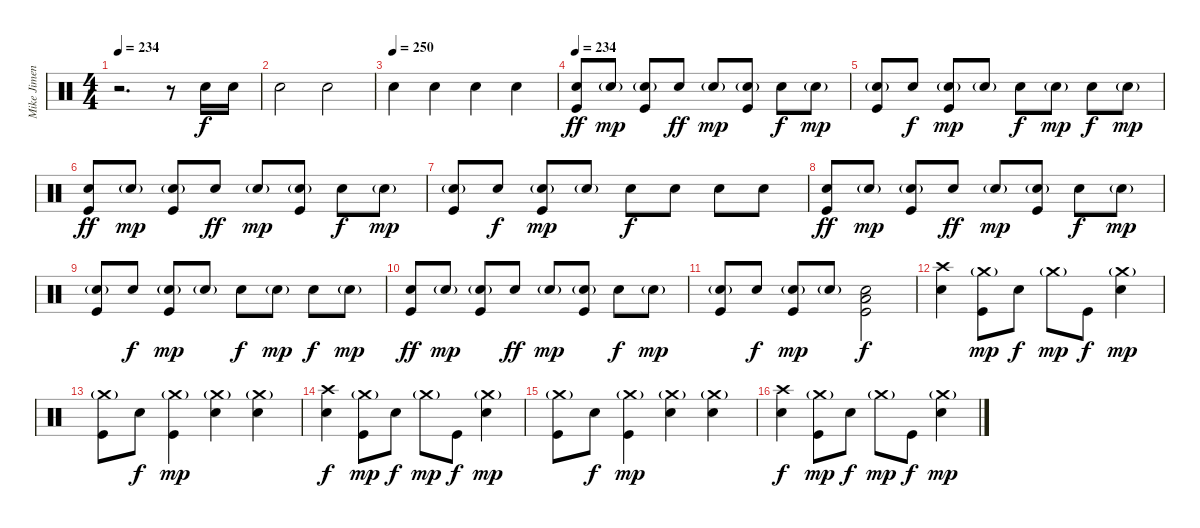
\track ("Mike Jimenez" "Mike Jimen") {instrument percussion}
\staff {score}
\articulation defaults
\ts (4 4)
\tempo 234
\clef neutral
\ks c
r.2{d dy f volume 3} r.8 "Electric Snare (hit)".16 "Electric Snare (hit)".16 |
"Electric Snare (hit)".2 "Electric Snare (hit)".2 |
\tempo (250)
"Electric Snare (hit)".4 "Electric Snare (hit)".4 "Electric Snare (hit)".4 "Electric Snare (hit)".4 |
\tempo 234
("Electric Snare (hit)" "Kick (hit)").8{dy ff} "Electric Snare (hit)"{g}.8{dy mp} ("Electric Snare (hit)"{g} "Kick (hit)").8 "Electric Snare (hit)".8{dy ff} "Electric Snare (hit)"{g}.8{dy mp} ("Electric Snare (hit)"{g} "Kick (hit)").8 "Electric Snare (hit)".8{dy f} "Electric Snare (hit)"{g}.8{dy mp} |
("Electric Snare (hit)"{g} "Kick (hit)").8 "Electric Snare (hit)".8{dy f} ("Electric Snare (hit)"{g} "Kick (hit)").8{dy mp} "Electric Snare (hit)"{g}.8 "Electric Snare (hit)".8{dy f} "Electric Snare (hit)"{g}.8{dy mp} "Electric Snare (hit)".8{dy f} "Electric Snare (hit)"{g}.8{dy mp} |
("Electric Snare (hit)" "Kick (hit)").8{dy ff} "Electric Snare (hit)"{g}.8{dy mp} ("Electric Snare (hit)"{g} "Kick (hit)").8 "Electric Snare (hit)".8{dy ff} "Electric Snare (hit)"{g}.8{dy mp} ("Electric Snare (hit)"{g} "Kick (hit)").8 "Electric Snare (hit)".8{dy f} "Electric Snare (hit)"{g}.8{dy mp} |
("Electric Snare (hit)"{g} "Kick (hit)").8 "Electric Snare (hit)".8{dy f} ("Electric Snare (hit)"{g} "Kick (hit)").8{dy mp} "Electric Snare (hit)"{g}.8 "Electric Snare (hit)".8{dy f} "Electric Snare (hit)".8 "Electric Snare (hit)".8 "Electric Snare (hit)".8 |
("Electric Snare (hit)" "Kick (hit)").8{dy ff} "Electric Snare (hit)"{g}.8{dy mp} ("Electric Snare (hit)"{g} "Kick (hit)").8 "Electric Snare (hit)".8{dy ff} "Electric Snare (hit)"{g}.8{dy mp} ("Electric Snare (hit)"{g} "Kick (hit)").8 "Electric Snare (hit)".8{dy f} "Electric Snare (hit)"{g}.8{dy mp} |
("Electric Snare (hit)"{g} "Kick (hit)").8 "Electric Snare (hit)".8{dy f} ("Electric Snare (hit)"{g} "Kick (hit)").8{dy mp} "Electric Snare (hit)"{g}.8 "Electric Snare (hit)".8{dy f} "Electric Snare (hit)"{g}.8{dy mp} "Electric Snare (hit)".8{dy f} "Electric Snare (hit)"{g}.8{dy mp} |
("Electric Snare (hit)" "Kick (hit)").8{dy ff} "Electric Snare (hit)"{g}.8{dy mp} ("Electric Snare (hit)"{g} "Kick (hit)").8 "Electric Snare (hit)".8{dy ff} "Electric Snare (hit)"{g}.8{dy mp} ("Electric Snare (hit)"{g} "Kick (hit)").8 "Electric Snare (hit)".8{dy f} "Electric Snare (hit)"{g}.8{dy mp} |
("Electric Snare (hit)"{g} "Kick (hit)").8 "Electric Snare (hit)".8{dy f} ("Electric Snare (hit)"{g} "Kick (hit)").8{dy mp} "Electric Snare (hit)"{g}.8 ("Low Tom (hit)" "Electric Snare (hit)" "Kick (hit)").2{dy f volume 14} |
("Crash high (hit)" "Electric Snare (hit)").4 ("Crash medium (hit)"{g} "Kick (hit)").8{dy mp} "Electric Snare (hit)".8{dy f} "Crash medium (hit)"{g}.8{dy mp} "Kick (hit)".8{dy f} ("Crash medium (hit)"{g} "Electric Snare (hit)").4{dy mp} |
("Crash medium (hit)"{g} "Kick (hit)").8 "Electric Snare (hit)".8{dy f} ("Crash medium (hit)"{g} "Kick (hit)").4{dy mp} ("Crash medium (hit)"{g} "Electric Snare (hit)").4 ("Crash medium (hit)"{g} "Electric Snare (hit)").4 |
("Crash high (hit)" "Electric Snare (hit)").4{dy f} ("Crash medium (hit)"{g} "Kick (hit)").8{dy mp} "Electric Snare (hit)".8{dy f} "Crash medium (hit)"{g}.8{dy mp} "Kick (hit)".8{dy f} ("Crash medium (hit)"{g} "Electric Snare (hit)").4{dy mp} |
("Crash medium (hit)"{g} "Kick (hit)").8 "Electric Snare (hit)".8{dy f} ("Crash medium (hit)"{g} "Kick (hit)").4{dy mp} ("Crash medium (hit)"{g} "Electric Snare (hit)").4 ("Crash medium (hit)"{g} "Electric Snare (hit)").4 |
("Crash high (hit)" "Electric Snare (hit)").4{dy f} ("Crash medium (hit)"{g} "Kick (hit)").8{dy mp} "Electric Snare (hit)".8{dy f} "Crash medium (hit)"{g}.8{dy mp} "Kick (hit)".8{dy f} ("Crash medium (hit)"{g} "Electric Snare (hit)").4{dy mp}
